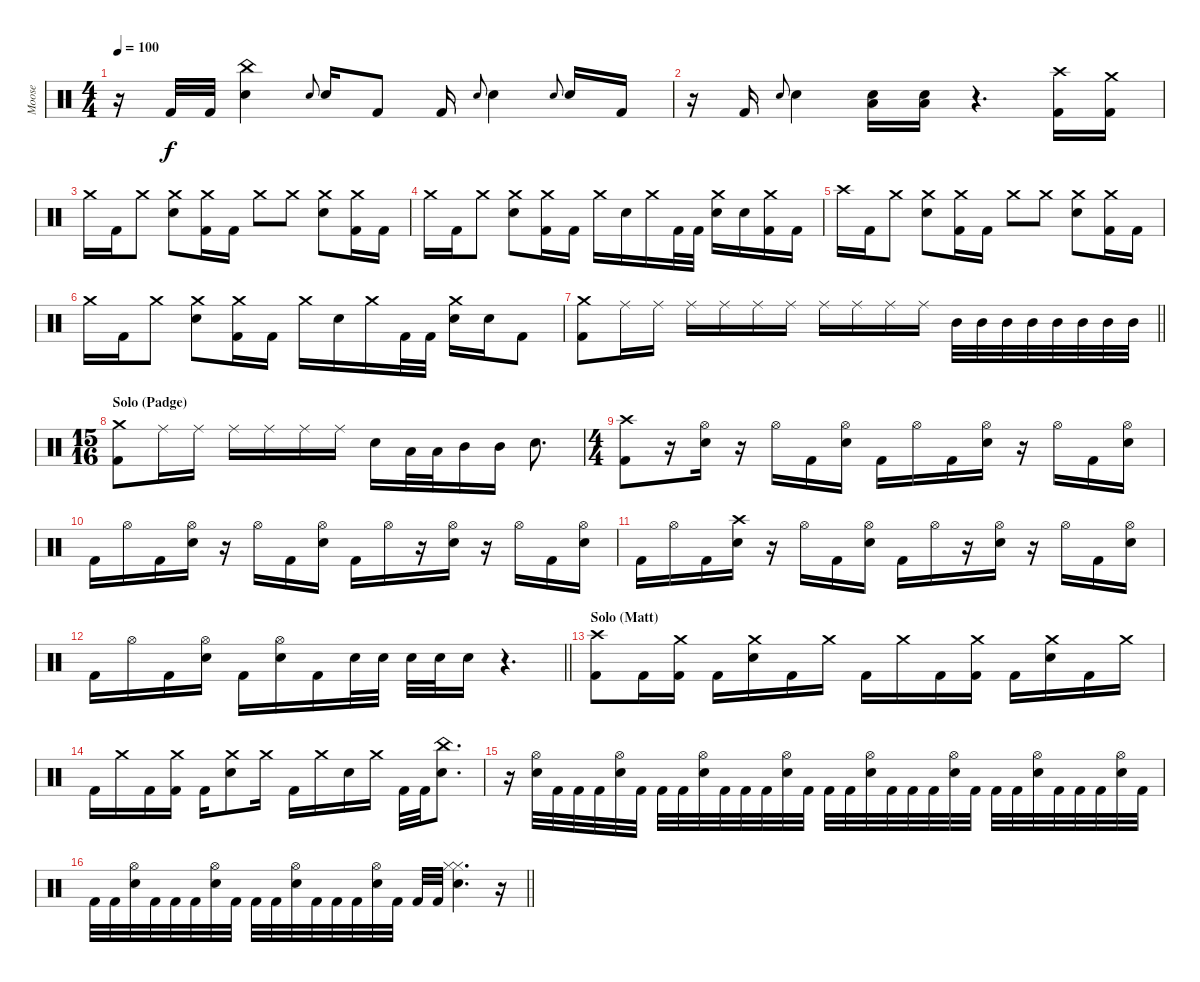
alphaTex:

\track ("Moose" "Moose") {instrument percussion}
\staff {score}
\articulation defaults
\ts (4 4)
\tempo 100
\clef neutral
\ks c
r.16{dy f} "Kick (hit) 2".32 "Kick (hit) 2".32 ("China (hit)" "Electric Snare (hit)").4 "Electric Snare (hit)".8{gr onbeat} "Electric Snare (hit)".16 "Kick (hit) 2".8 "Kick (hit) 2".16 "Electric Snare (hit)".8{gr onbeat} "Electric Snare (hit)".4 "Electric Snare (hit)".8{gr onbeat} "Electric Snare (hit)".16 "Kick (hit) 2".16 |
r.16 "Kick (hit) 2".16 "Electric Snare (hit)".8{gr onbeat} "Electric Snare (hit)".4 ("Low Tom (hit)" "Electric Snare (hit)").16 ("Low Tom (hit)" "Electric Snare (hit)").16 r.4{d} ("Crash high (hit)" "Kick (hit) 2").16 ("Crash medium (hit)" "Kick (hit) 2").16 |
"Crash medium (hit)".16 "Kick (hit) 2".16 "Crash medium (hit)".8 ("Crash medium (hit)" "Electric Snare (hit)").8 ("Crash medium (hit)" "Kick (hit) 2").16 "Kick (hit) 2".16 "Crash medium (hit)".8 "Crash medium (hit)".8 ("Crash medium (hit)" "Electric Snare (hit)").8 ("Crash medium (hit)" "Kick (hit) 2").16 "Kick (hit) 2".16 |
"Crash medium (hit)".16 "Kick (hit) 2".16 "Crash medium (hit)".8 ("Crash medium (hit)" "Electric Snare (hit)").8 ("Crash medium (hit)" "Kick (hit) 2").16 "Kick (hit) 2".16 "Crash medium (hit)".16 "Electric Snare (hit)".16 "Crash medium (hit)".16 "Kick (hit) 2".32 "Kick (hit) 2".32 ("Crash medium (hit)" "Electric Snare (hit)").16 "Electric Snare (hit)".16 ("Crash medium (hit)" "Kick (hit) 2").16 "Kick (hit) 2".16 |
"Crash high (hit)".16 "Kick (hit) 2".16 "Crash medium (hit)".8 ("Crash medium (hit)" "Electric Snare (hit)").8 ("Crash medium (hit)" "Kick (hit) 2").16 "Kick (hit) 2".16 "Crash medium (hit)".8 "Crash medium (hit)".8 ("Crash medium (hit)" "Electric Snare (hit)").8 ("Crash medium (hit)" "Kick (hit) 2").16 "Kick (hit) 2".16 |
"Crash medium (hit)".16 "Kick (hit) 2".16 "Crash medium (hit)".8 ("Crash medium (hit)" "Electric Snare (hit)").8 ("Crash medium (hit)" "Kick (hit) 2").16 "Kick (hit) 2".16 "Crash medium (hit)".16 "Electric Snare (hit)".16 "Crash medium (hit)".16 "Kick (hit) 2".32 "Kick (hit) 2".32 ("Crash medium (hit)" "Electric Snare (hit)").16 "Electric Snare (hit)".16 "Kick (hit) 2".8 |
\barLineRight lightlight
("Crash medium (hit)" "Kick (hit) 2").8 "Ride (middle)".16 "Ride (middle)".16 "Ride (middle)".16 "Ride (middle)".16 "Ride (middle)".16 "Ride (middle)".16 "Ride (middle)".16 "Ride (middle)".16 "Ride (middle)".16 "Ride (middle)".16 "Mid Tom (hit)".32 "Mid Tom (hit)".32 "Mid Tom (hit)".32 "Mid Tom (hit)".32 "Mid Tom (hit)".32 "Mid Tom (hit)".32 "Mid Tom (hit)".32 "Mid Tom (hit)".32 |
\ts (15 16)
\section ("" "Solo (Padge)")
("Crash medium (hit)" "Kick (hit) 2").8 "Ride (middle)".16 "Ride (middle)".16 "Ride (middle)".16 "Ride (middle)".16 "Ride (middle)".16 "Ride (middle)".16 "Electric Snare (hit)".16 "Low Tom (hit)".32 "Low Tom (hit)".32 "Mid Tom (hit)".16 "Mid Tom (hit)".16 "Electric Snare (hit)".8{d} |
\ts (4 4)
("Crash high (hit)" "Kick (hit) 2").8 r.16 ("Hi-Hat (open)" "Electric Snare (hit)").16 r.16 "Hi-Hat (open)".16 "Kick (hit) 2".16 ("Hi-Hat (open)" "Electric Snare (hit)").16 "Kick (hit) 2".16 "Hi-Hat (open)".16 "Kick (hit) 2".16 ("Hi-Hat (open)" "Electric Snare (hit)").16 r.16 "Hi-Hat (open)".16 "Kick (hit) 2".16 ("Hi-Hat (open)" "Electric Snare (hit)").16 |
"Kick (hit) 2".16 "Hi-Hat (open)".16 "Kick (hit) 2".16 ("Hi-Hat (open)" "Electric Snare (hit)").16 r.16 "Hi-Hat (open)".16 "Kick (hit) 2".16 ("Hi-Hat (open)" "Electric Snare (hit)").16 "Kick (hit) 2".16 "Hi-Hat (open)".16 r.16 ("Hi-Hat (open)" "Electric Snare (hit)").16 r.16 "Hi-Hat (open)".16 "Kick (hit) 2".16 ("Hi-Hat (open)" "Electric Snare (hit)").16 |
"Kick (hit) 2".16 "Hi-Hat (open)".16 "Kick (hit) 2".16 ("Crash high (hit)" "Electric Snare (hit)").16 r.16 "Hi-Hat (open)".16 "Kick (hit) 2".16 ("Hi-Hat (open)" "Electric Snare (hit)").16 "Kick (hit) 2".16 "Hi-Hat (open)".16 r.16 ("Hi-Hat (open)" "Electric Snare (hit)").16 r.16 "Hi-Hat (open)".16 "Kick (hit) 2".16 ("Hi-Hat (open)" "Electric Snare (hit)").16 |
\barLineRight lightlight "Kick (hit) 2".16 "Hi-Hat (open)".16 "Kick (hit) 2".16
("Hi-Hat (open)" "Electric Snare (hit)").16 "Kick (hit) 2".16 ("Hi-Hat (open)" "Electric Snare (hit)").16 "Kick (hit) 2".16 "Electric Snare (hit)".32 "Electric Snare (hit)".32 "Electric Snare (hit)".32 "Electric Snare (hit)".32 "Electric Snare (hit)".16 r.4{d} |
\section ("" "Solo (Matt)")
("Crash high (hit)" "Kick (hit) 2").8 "Kick (hit) 2".16 ("Crash medium (hit)" "Kick (hit) 2").16 "Kick (hit) 2".16 ("Crash medium (hit)" "Electric Snare (hit)").16 "Kick (hit) 2".16 "Crash medium (hit)".16 "Kick (hit) 2".16 "Crash medium (hit)".16 "Kick (hit) 2".16 ("Crash medium (hit)" "Kick (hit) 2").16 "Kick (hit) 2".16 ("Crash medium (hit)" "Electric Snare (hit)").16 "Kick (hit) 2".16 "Crash medium (hit)".16 |
"Kick (hit) 2".16 "Crash medium (hit)".16 "Kick (hit) 2".16 ("Crash medium (hit)" "Kick (hit) 2").16 "Kick (hit) 2".16 ("Crash medium (hit)" "Electric Snare (hit)").8 "Crash medium (hit)".16 "Kick (hit) 2".16 "Crash medium (hit)".16 "Electric Snare (hit)".16 "Crash medium (hit)".16 "Kick (hit) 2".32 "Kick (hit) 2".32 ("China (hit)" "Electric Snare (hit)").8{d} |
r.16 ("Hi-Hat (open)" "Electric Snare (hit)").32 "Kick (hit) 2".32 "Kick (hit) 2".32 "Kick (hit) 2".32 ("Hi-Hat (open)" "Electric Snare (hit)").32 "Kick (hit) 2".32 "Kick (hit) 2".32 "Kick (hit) 2".32 ("Hi-Hat (open)" "Electric Snare (hit)").32 "Kick (hit) 2".32 "Kick (hit) 2".32 "Kick (hit) 2".32 ("Hi-Hat (open)" "Electric Snare (hit)").32 "Kick (hit) 2".32 "Kick (hit) 2".32 "Kick (hit) 2".32 ("Hi-Hat (open)" "Electric Snare (hit)").32 "Kick (hit) 2".32 "Kick (hit) 2".32 "Kick (hit) 2".32 ("Hi-Hat (open)" "Electric Snare (hit)").32 "Kick (hit) 2".32 "Kick (hit) 2".32 "Kick (hit) 2".32 ("Hi-Hat (open)" "Electric Snare (hit)").32 "Kick (hit) 2".32 "Kick (hit) 2".32 "Kick (hit) 2".32 ("Hi-Hat (open)" "Electric Snare (hit)").32 "Kick (hit) 2".32 |
\barLineRight lightlight "Kick (hit) 2".32 "Kick (hit) 2".32
("Hi-Hat (open)" "Electric Snare (hit)").32 "Kick (hit) 2".32 "Kick (hit) 2".32 "Kick (hit) 2".32 ("Hi-Hat (open)" "Electric Snare (hit)").32 "Kick (hit) 2".32 "Kick (hit) 2".32 "Kick (hit) 2".32 ("Hi-Hat (open)" "Electric Snare (hit)").32 "Kick (hit) 2".32 "Kick (hit) 2".32 "Kick (hit) 2".32 ("Hi-Hat (open)" "Electric Snare (hit)").32 "Kick (hit) 2".32 "Kick (hit) 2".32 "Kick (hit) 2".32 ("Hi-Hat (closed)" "Hi-Hat (closed)" "Electric Snare (hit)").4{d} r.16
